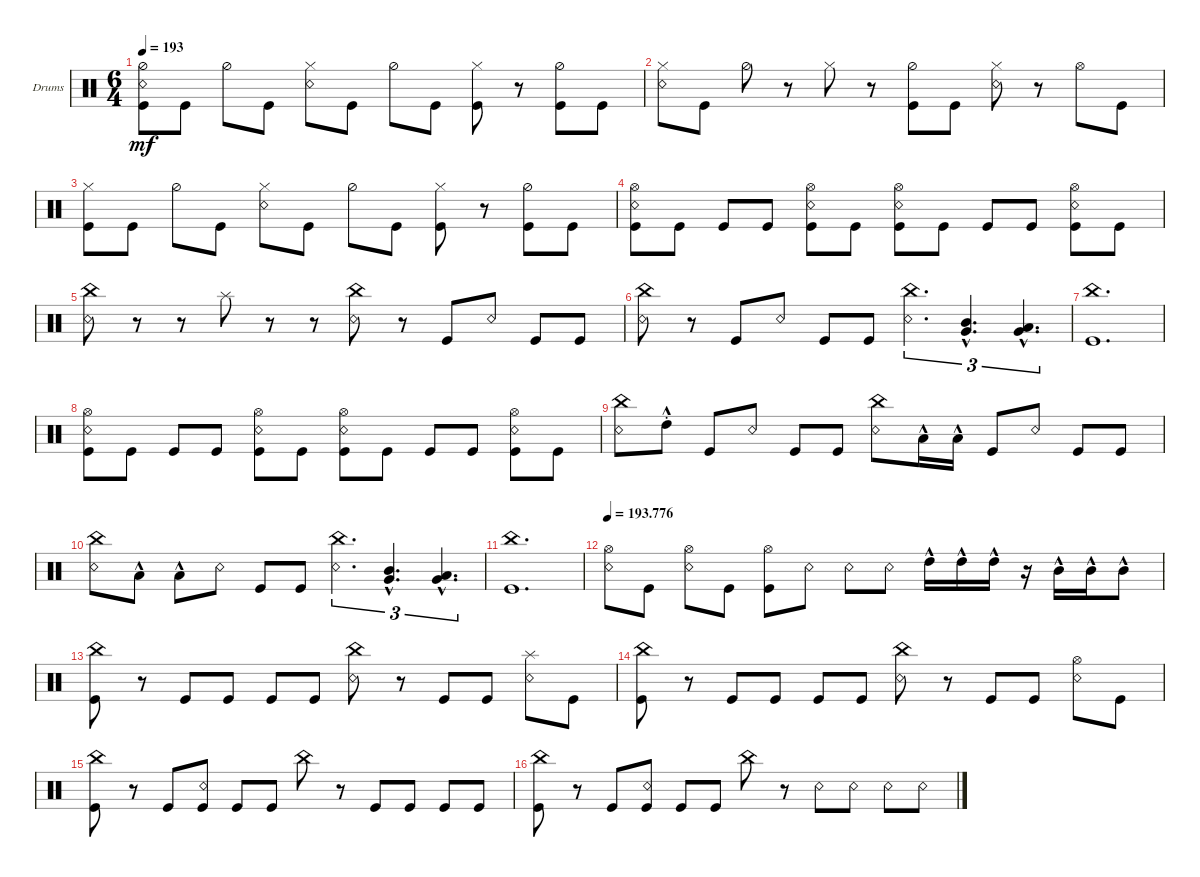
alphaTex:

\defaultSystemsLayout 4
\bracketExtendMode groupsimilarinstruments
\firstSystemTrackNameOrientation horizontal
\otherSystemsTrackNameOrientation horizontal
\track ("Drumkit" "Drums") {multiBarRest instrument percussion}
\staff {score}
\articulation defaults
\ts (6 4)
\tempo 193
\clef neutral
\scale
0.333333
\ks c
("Kick (hit)" "Snare (rim shot)" "Hi-Hat (half)").8{dy mf} "Kick (hit)".8 "Hi-Hat (half)".8 "Kick (hit)".8 ("Snare (rim shot)" "Hi-Hat (closed)").8 "Kick (hit)".8 "Hi-Hat (half)".8 "Kick (hit)".8 ("Kick (hit)" "Hi-Hat (closed)").8 r.8 ("Kick (hit)" "Hi-Hat (half)").8 "Kick (hit)".8 |
\scale
0.333333 ("Snare (rim shot)" "Hi-Hat (closed)").8 "Kick (hit)".8 "Hi-Hat (half)".8 r.8 "Hi-Hat (closed)".8 r.8 ("Hi-Hat (half)" "Kick (hit)").8 "Kick (hit)".8 ("Hi-Hat (closed)" "Snare (rim shot)").8 r.8 "Hi-Hat (open)".8 "Kick (hit)".8 |
\scale
0.333333 ("Kick (hit)" "Hi-Hat (closed)").8 "Kick (hit)".8 "Hi-Hat (half)".8 "Kick (hit)".8 ("Snare (rim shot)" "Hi-Hat (closed)").8 "Kick (hit)".8 "Hi-Hat (half)".8 "Kick (hit)".8 ("Kick (hit)" "Hi-Hat (closed)").8 r.8 ("Kick (hit)" "Hi-Hat (half)").8 "Kick (hit)".8 |
\scale
0.333333 ("Snare (rim shot)" "Kick (hit)" "Hi-Hat (open)").8 "Kick (hit)".8 "Kick (hit)".8 "Kick (hit)".8 ("Kick (hit)" "Snare (rim shot)" "Hi-Hat (open)").8 "Kick (hit)".8 ("Snare (rim shot)" "Kick (hit)" "Hi-Hat (open)").8 "Kick (hit)".8 "Kick (hit)".8 "Kick (hit)".8 ("Kick (hit)" "Snare (rim shot)" "Hi-Hat (open)").8 "Kick (hit)".8 |
\scale
0.333333 ("China (hit)" "Snare (rim shot)").8 r.8 r.8 "Splash (hit)".8 r.8 r.8 ("China (hit)" "Snare (rim shot)").8 r.8 "Kick (hit)".8 "Snare (rim shot)".8 "Kick (hit)".8 "Kick (hit)".8 |
\scale
0.333333 ("China (hit)" "Snare (rim shot)").8 r.8 "Kick (hit)".8 "Snare (rim shot)".8 "Kick (hit)".8 "Kick (hit)".8 ("China (hit)" "Snare (rim shot)").4{d tu (3 2)} ("Very Low Tom (hit)"{hac} "Mid Tom (hit)"{hac}).4{d tu (3 2)} ("Very Low Tom (hit)"{hac} "Low Tom (hit)"{hac}).4{d tu (3 2)} |
\scale
0.333333 ("Kick (hit)" "China (hit)").1{d} |
\scale
0.333333 ("Snare (rim shot)" "Kick (hit)" "Hi-Hat (open)").8 "Kick (hit)".8 "Kick (hit)".8 "Kick (hit)".8 ("Kick (hit)" "Snare (rim shot)" "Hi-Hat (open)").8 "Kick (hit)".8 ("Snare (rim shot)" "Kick (hit)" "Hi-Hat (open)").8 "Kick (hit)".8 "Kick (hit)".8 "Kick (hit)".8 ("Kick (hit)" "Snare (rim shot)" "Hi-Hat (open)").8 "Kick (hit)".8 |
\scale
0.333333 ("China (hit)" "Snare (rim shot)").8 "High Tom (hit)"{hac st}.8 "Kick (hit)".8 "Snare (rim shot)".8 "Kick (hit)".8 "Kick (hit)".8 ("China (hit)" "Snare (rim shot)").8 "Low Tom (hit)"{hac}.16 "Low Tom (hit)"{hac}.16 "Kick (hit)".8 "Snare (rim shot)".8 "Kick (hit)".8 "Kick (hit)".8 |
\scale
0.333333 ("China (hit)" "Snare (rim shot)").8 "Low Tom (hit)"{hac}.8 "Low Tom (hit)"{hac}.8 "Snare (rim shot)".8 "Kick (hit)".8 "Kick (hit)".8 ("China (hit)" "Snare (rim shot)").4{d tu (3 2)} ("Very Low Tom (hit)"{hac} "Mid Tom (hit)"{hac}).4{d tu (3 2)} ("Very Low Tom (hit)"{hac} "Low Tom (hit)"{hac}).4{d tu (3 2)} |
\scale
0.333333 ("Kick (hit)" "China (hit)").1{d} |
\tempo
193.776
\scale
0.333333 ("Snare (rim shot)" "Hi-Hat (open)").8 "Kick (hit)".8 ("Snare (rim shot)" "Hi-Hat (open)").8 "Kick (hit)".8 ("Kick (hit)" "Hi-Hat (open)").8 "Snare (rim shot)".8 "Snare (rim shot)".8 "Snare (rim shot)".8 "High Tom (hit)"{hac}.16 "High Tom (hit)"{hac}.16 "High Tom (hit)"{hac}.16 r.16 "Mid Tom (hit)"{hac}.16 "Mid Tom (hit)"{hac}.16 "Mid Tom (hit)"{hac}.8 |
\scale
0.333333 ("China (hit)" "Kick (hit)").8 r.8 "Kick (hit)".8 "Kick (hit)".8 "Kick (hit)".8 "Kick (hit)".8 ("Snare (rim shot)" "China (hit)").8 r.8 "Kick (hit)".8 "Kick (hit)".8 ("Snare (rim shot)" "Splash (hit)").8 "Kick (hit)".8 |
\scale
0.333333 ("China (hit)" "Kick (hit)").8 r.8 "Kick (hit)".8 "Kick (hit)".8 "Kick (hit)".8 "Kick (hit)".8 ("Snare (rim shot)" "China (hit)").8 r.8 "Kick (hit)".8 "Kick (hit)".8 ("Snare (rim shot)" "Hi-Hat (open)").8 "Kick (hit)".8 |
\scale
0.333333 ("China (hit)" "Kick (hit)").8 r.8 "Kick (hit)".8 ("Kick (hit)" "Snare (rim shot)").8 "Kick (hit)".8 "Kick (hit)".8 "China (hit)".8 r.8 "Kick (hit)".8 "Kick (hit)".8 "Kick (hit)".8 "Kick (hit)".8 |
\scale
0.333333 ("China (hit)" "Kick (hit)").8 r.8 "Kick (hit)".8 ("Kick (hit)" "Snare (rim shot)").8 "Kick (hit)".8 "Kick (hit)".8 "China (hit)".8 r.8 "Snare (rim shot)".8 "Snare (rim shot)".8 "Snare (rim shot)".8 "Snare (rim shot)".8
